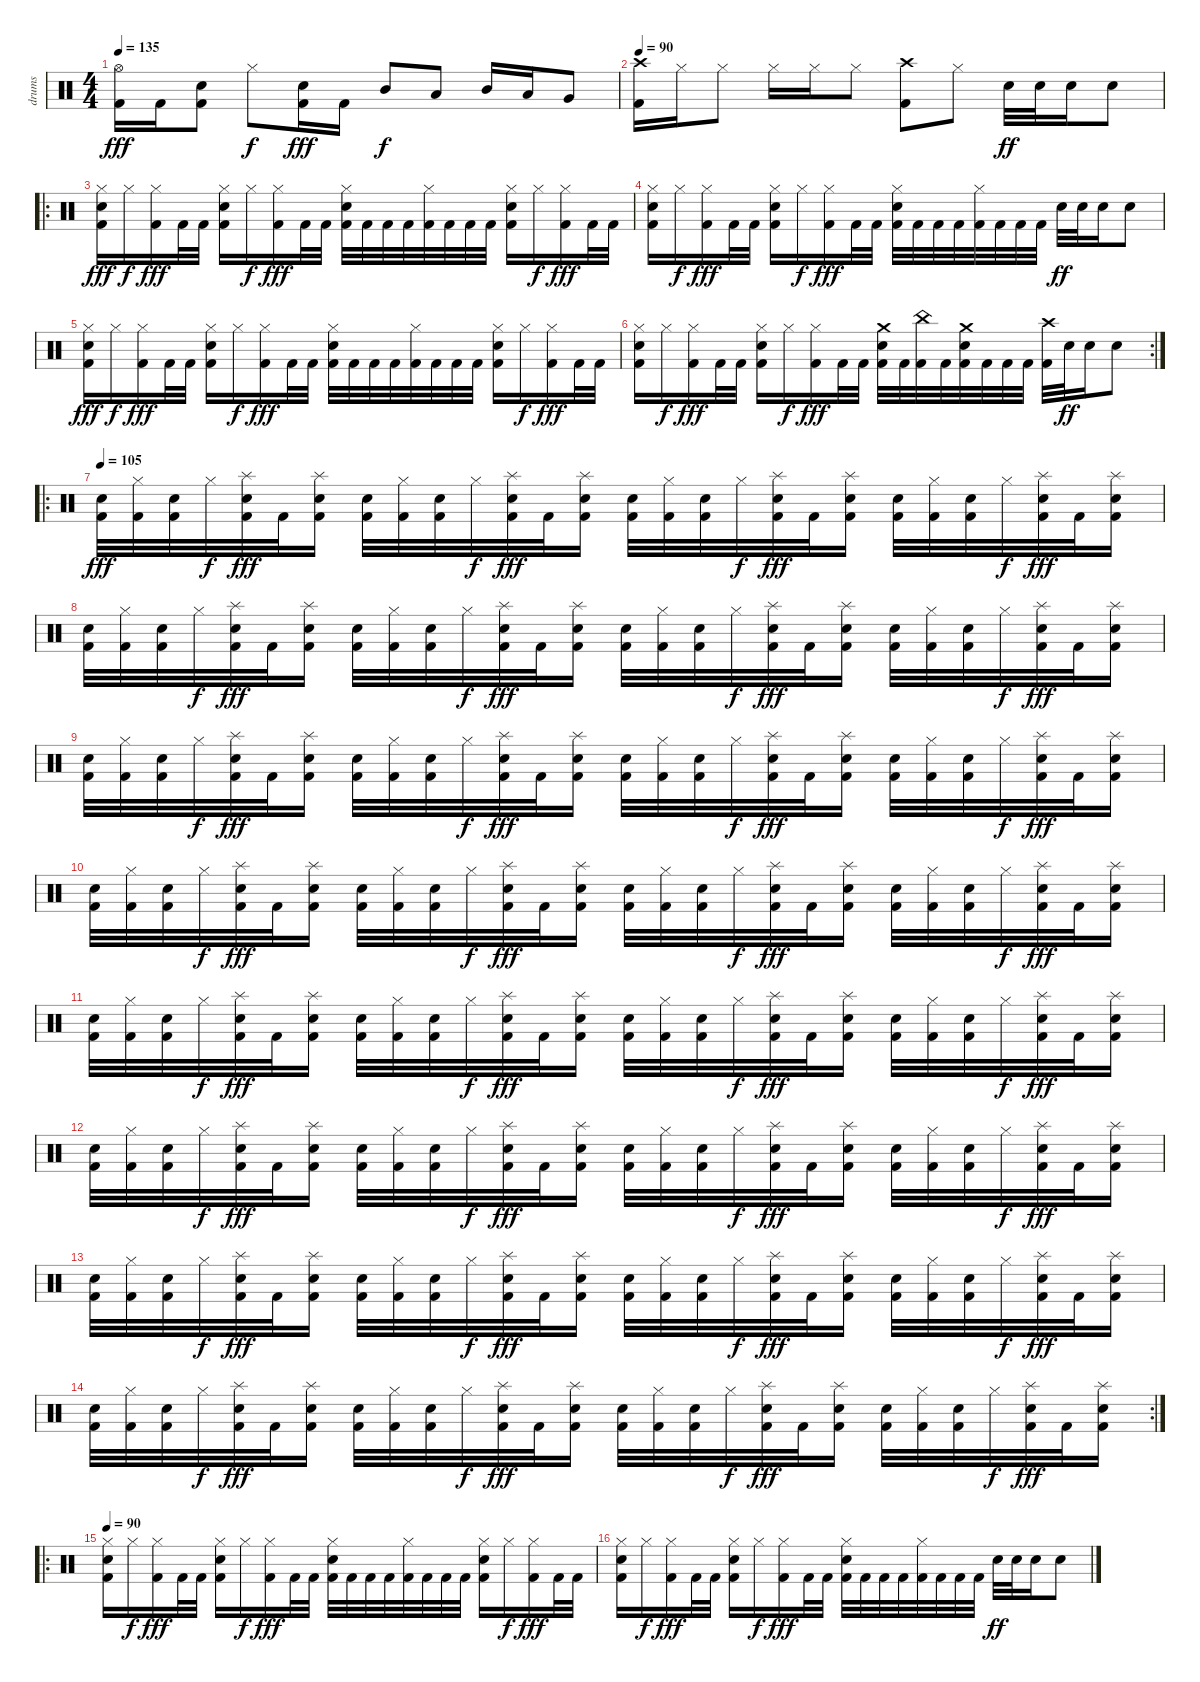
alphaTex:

\track ("drums" "drums") {instrument percussion}
\staff {score}
\articulation defaults
\ts (4 4)
\tempo 135
\clef neutral
\ks c
("Hi-Hat (open)" "Kick (hit) 2").16{dy fff} "Kick (hit) 2".16 ("Electric Snare (hit)" "Kick (hit) 2").8 "Hi-Hat (closed)".8{dy f} ("Electric Snare (hit)" "Kick (hit) 2").16{dy fff} "Kick (hit) 2".16 "Mid Tom (hit)".8{dy f} "Low Tom (hit)".8 "Mid Tom (hit)".16 "Low Tom (hit)".16 "Very Low Tom (hit)".8 |
\tempo 90
("Crash high (hit)" "Kick (hit) 2").16 "Hi-Hat (closed)".16 "Hi-Hat (closed)".8 "Hi-Hat (closed)".16 "Hi-Hat (closed)".16 "Hi-Hat (closed)".8 ("Crash high (hit)" "Kick (hit) 2").8 "Hi-Hat (closed)".8 "Electric Snare (hit)".32{dy ff} "Electric Snare (hit)".32 "Electric Snare (hit)".16 "Electric Snare (hit)".8 |
\ro
("Hi-Hat (closed)" "Electric Snare (hit)" "Kick (hit) 2").16{dy fff} "Hi-Hat (closed)".16{dy f} ("Hi-Hat (closed)" "Kick (hit) 2").16{dy fff} "Kick (hit) 2".32 "Kick (hit) 2".32 ("Hi-Hat (closed)" "Electric Snare (hit)" "Kick (hit) 2").16 "Hi-Hat (closed)".16{dy f} ("Hi-Hat (closed)" "Kick (hit) 2").16{dy fff} "Kick (hit) 2".32 "Kick (hit) 2".32 ("Hi-Hat (closed)" "Electric Snare (hit)" "Kick (hit) 2").32 "Kick (hit) 2".32 "Kick (hit) 2".32 "Kick (hit) 2".32 ("Hi-Hat (closed)" "Kick (hit) 2").32 "Kick (hit) 2".32 "Kick (hit) 2".32 "Kick (hit) 2".32 ("Hi-Hat (closed)" "Electric Snare (hit)" "Kick (hit) 2").16 "Hi-Hat (closed)".16{dy f} ("Hi-Hat (closed)" "Kick (hit) 2").16{dy fff} "Kick (hit) 2".32 "Kick (hit) 2".32 |
("Hi-Hat (closed)" "Electric Snare (hit)" "Kick (hit) 2").16 "Hi-Hat (closed)".16{dy f} ("Hi-Hat (closed)" "Kick (hit) 2").16{dy fff} "Kick (hit) 2".32 "Kick (hit) 2".32 ("Hi-Hat (closed)" "Electric Snare (hit)" "Kick (hit) 2").16 "Hi-Hat (closed)".16{dy f} ("Hi-Hat (closed)" "Kick (hit) 2").16{dy fff} "Kick (hit) 2".32 "Kick (hit) 2".32 ("Hi-Hat (closed)" "Electric Snare (hit)" "Kick (hit) 2").32 "Kick (hit) 2".32 "Kick (hit) 2".32 "Kick (hit) 2".32 ("Hi-Hat (closed)" "Kick (hit) 2").32 "Kick (hit) 2".32 "Kick (hit) 2".32 "Kick (hit) 2".32 "Electric Snare (hit)".32{dy ff} "Electric Snare (hit)".32 "Electric Snare (hit)".16 "Electric Snare (hit)".8 |
("Hi-Hat (closed)" "Electric Snare (hit)" "Kick (hit) 2").16{dy fff} "Hi-Hat (closed)".16{dy f} ("Hi-Hat (closed)" "Kick (hit) 2").16{dy fff} "Kick (hit) 2".32 "Kick (hit) 2".32 ("Hi-Hat (closed)" "Electric Snare (hit)" "Kick (hit) 2").16 "Hi-Hat (closed)".16{dy f} ("Hi-Hat (closed)" "Kick (hit) 2").16{dy fff} "Kick (hit) 2".32 "Kick (hit) 2".32 ("Hi-Hat (closed)" "Electric Snare (hit)" "Kick (hit) 2").32 "Kick (hit) 2".32 "Kick (hit) 2".32 "Kick (hit) 2".32 ("Hi-Hat (closed)" "Kick (hit) 2").32 "Kick (hit) 2".32 "Kick (hit) 2".32 "Kick (hit) 2".32 ("Hi-Hat (closed)" "Electric Snare (hit)" "Kick (hit) 2").16 "Hi-Hat (closed)".16{dy f} ("Hi-Hat (closed)" "Kick (hit) 2").16{dy fff} "Kick (hit) 2".32 "Kick (hit) 2".32 |
\rc 2
("Hi-Hat (closed)" "Electric Snare (hit)" "Kick (hit) 2").16 "Hi-Hat (closed)".16{dy f} ("Hi-Hat (closed)" "Kick (hit) 2").16{dy fff} "Kick (hit) 2".32 "Kick (hit) 2".32 ("Hi-Hat (closed)" "Electric Snare (hit)" "Kick (hit) 2").16 "Hi-Hat (closed)".16{dy f} ("Hi-Hat (closed)" "Kick (hit) 2").16{dy fff} "Kick (hit) 2".32 "Kick (hit) 2".32 ("Crash medium (hit)" "Electric Snare (hit)" "Kick (hit) 2").32 "Kick (hit) 2".32 ("China (hit)" "Kick (hit) 2").32 "Kick (hit) 2".32 ("Crash medium (hit)" "Electric Snare (hit)" "Kick (hit) 2").32 "Kick (hit) 2".32 "Kick (hit) 2".32 "Kick (hit) 2".32 ("Crash high (hit)" "Kick (hit) 2").32 "Electric Snare (hit)".32{dy ff} "Electric Snare (hit)".16 "Electric Snare (hit)".8 |
\ro
\tempo 105
("Electric Snare (hit)" "Kick (hit) 2").32{dy fff} ("Hi-Hat (closed)" "Kick (hit) 2").32 ("Electric Snare (hit)" "Kick (hit) 2").32 "Hi-Hat (closed)".32{dy f} ("Splash (hit)" "Electric Snare (hit)" "Kick (hit) 2").32{dy fff} "Kick (hit) 2".32 ("Splash (hit)" "Electric Snare (hit)" "Kick (hit) 2").16 ("Electric Snare (hit)" "Kick (hit) 2").32 ("Hi-Hat (closed)" "Kick (hit) 2").32 ("Electric Snare (hit)" "Kick (hit) 2").32 "Hi-Hat (closed)".32{dy f} ("Splash (hit)" "Electric Snare (hit)" "Kick (hit) 2").32{dy fff} "Kick (hit) 2".32 ("Splash (hit)" "Electric Snare (hit)" "Kick (hit) 2").16 ("Electric Snare (hit)" "Kick (hit) 2").32 ("Hi-Hat (closed)" "Kick (hit) 2").32 ("Electric Snare (hit)" "Kick (hit) 2").32 "Hi-Hat (closed)".32{dy f} ("Splash (hit)" "Electric Snare (hit)" "Kick (hit) 2").32{dy fff} "Kick (hit) 2".32 ("Splash (hit)" "Electric Snare (hit)" "Kick (hit) 2").16 ("Electric Snare (hit)" "Kick (hit) 2").32 ("Hi-Hat (closed)" "Kick (hit) 2").32 ("Electric Snare (hit)" "Kick (hit) 2").32 "Hi-Hat (closed)".32{dy f} ("Splash (hit)" "Electric Snare (hit)" "Kick (hit) 2").32{dy fff} "Kick (hit) 2".32 ("Splash (hit)" "Electric Snare (hit)" "Kick (hit) 2").16 |
("Electric Snare (hit)" "Kick (hit) 2").32 ("Hi-Hat (closed)" "Kick (hit) 2").32 ("Electric Snare (hit)" "Kick (hit) 2").32 "Hi-Hat (closed)".32{dy f} ("Splash (hit)" "Electric Snare (hit)" "Kick (hit) 2").32{dy fff} "Kick (hit) 2".32 ("Splash (hit)" "Electric Snare (hit)" "Kick (hit) 2").16 ("Electric Snare (hit)" "Kick (hit) 2").32 ("Hi-Hat (closed)" "Kick (hit) 2").32 ("Electric Snare (hit)" "Kick (hit) 2").32 "Hi-Hat (closed)".32{dy f} ("Splash (hit)" "Electric Snare (hit)" "Kick (hit) 2").32{dy fff} "Kick (hit) 2".32 ("Splash (hit)" "Electric Snare (hit)" "Kick (hit) 2").16 ("Electric Snare (hit)" "Kick (hit) 2").32 ("Hi-Hat (closed)" "Kick (hit) 2").32 ("Electric Snare (hit)" "Kick (hit) 2").32 "Hi-Hat (closed)".32{dy f} ("Splash (hit)" "Electric Snare (hit)" "Kick (hit) 2").32{dy fff} "Kick (hit) 2".32 ("Splash (hit)" "Electric Snare (hit)" "Kick (hit) 2").16 ("Electric Snare (hit)" "Kick (hit) 2").32 ("Hi-Hat (closed)" "Kick (hit) 2").32 ("Electric Snare (hit)" "Kick (hit) 2").32 "Hi-Hat (closed)".32{dy f} ("Splash (hit)" "Electric Snare (hit)" "Kick (hit) 2").32{dy fff} "Kick (hit) 2".32 ("Splash (hit)" "Electric Snare (hit)" "Kick (hit) 2").16 |
("Electric Snare (hit)" "Kick (hit) 2").32 ("Hi-Hat (closed)" "Kick (hit) 2").32 ("Electric Snare (hit)" "Kick (hit) 2").32 "Hi-Hat (closed)".32{dy f} ("Splash (hit)" "Electric Snare (hit)" "Kick (hit) 2").32{dy fff} "Kick (hit) 2".32 ("Splash (hit)" "Electric Snare (hit)" "Kick (hit) 2").16 ("Electric Snare (hit)" "Kick (hit) 2").32 ("Hi-Hat (closed)" "Kick (hit) 2").32 ("Electric Snare (hit)" "Kick (hit) 2").32 "Hi-Hat (closed)".32{dy f} ("Splash (hit)" "Electric Snare (hit)" "Kick (hit) 2").32{dy fff} "Kick (hit) 2".32 ("Splash (hit)" "Electric Snare (hit)" "Kick (hit) 2").16 ("Electric Snare (hit)" "Kick (hit) 2").32 ("Hi-Hat (closed)" "Kick (hit) 2").32 ("Electric Snare (hit)" "Kick (hit) 2").32 "Hi-Hat (closed)".32{dy f} ("Splash (hit)" "Electric Snare (hit)" "Kick (hit) 2").32{dy fff} "Kick (hit) 2".32 ("Splash (hit)" "Electric Snare (hit)" "Kick (hit) 2").16 ("Electric Snare (hit)" "Kick (hit) 2").32 ("Hi-Hat (closed)" "Kick (hit) 2").32 ("Electric Snare (hit)" "Kick (hit) 2").32 "Hi-Hat (closed)".32{dy f} ("Splash (hit)" "Electric Snare (hit)" "Kick (hit) 2").32{dy fff} "Kick (hit) 2".32 ("Splash (hit)" "Electric Snare (hit)" "Kick (hit) 2").16 |
("Electric Snare (hit)" "Kick (hit) 2").32 ("Hi-Hat (closed)" "Kick (hit) 2").32 ("Electric Snare (hit)" "Kick (hit) 2").32 "Hi-Hat (closed)".32{dy f} ("Splash (hit)" "Electric Snare (hit)" "Kick (hit) 2").32{dy fff} "Kick (hit) 2".32 ("Splash (hit)" "Electric Snare (hit)" "Kick (hit) 2").16 ("Electric Snare (hit)" "Kick (hit) 2").32 ("Hi-Hat (closed)" "Kick (hit) 2").32 ("Electric Snare (hit)" "Kick (hit) 2").32 "Hi-Hat (closed)".32{dy f} ("Splash (hit)" "Electric Snare (hit)" "Kick (hit) 2").32{dy fff} "Kick (hit) 2".32 ("Splash (hit)" "Electric Snare (hit)" "Kick (hit) 2").16 ("Electric Snare (hit)" "Kick (hit) 2").32 ("Hi-Hat (closed)" "Kick (hit) 2").32 ("Electric Snare (hit)" "Kick (hit) 2").32 "Hi-Hat (closed)".32{dy f} ("Splash (hit)" "Electric Snare (hit)" "Kick (hit) 2").32{dy fff} "Kick (hit) 2".32 ("Splash (hit)" "Electric Snare (hit)" "Kick (hit) 2").16 ("Electric Snare (hit)" "Kick (hit) 2").32 ("Hi-Hat (closed)" "Kick (hit) 2").32 ("Electric Snare (hit)" "Kick (hit) 2").32 "Hi-Hat (closed)".32{dy f} ("Splash (hit)" "Electric Snare (hit)" "Kick (hit) 2").32{dy fff} "Kick (hit) 2".32 ("Splash (hit)" "Electric Snare (hit)" "Kick (hit) 2").16 |
("Electric Snare (hit)" "Kick (hit) 2").32 ("Hi-Hat (closed)" "Kick (hit) 2").32 ("Electric Snare (hit)" "Kick (hit) 2").32 "Hi-Hat (closed)".32{dy f} ("Splash (hit)" "Electric Snare (hit)" "Kick (hit) 2").32{dy fff} "Kick (hit) 2".32 ("Splash (hit)" "Electric Snare (hit)" "Kick (hit) 2").16 ("Electric Snare (hit)" "Kick (hit) 2").32 ("Hi-Hat (closed)" "Kick (hit) 2").32 ("Electric Snare (hit)" "Kick (hit) 2").32 "Hi-Hat (closed)".32{dy f} ("Splash (hit)" "Electric Snare (hit)" "Kick (hit) 2").32{dy fff} "Kick (hit) 2".32 ("Splash (hit)" "Electric Snare (hit)" "Kick (hit) 2").16 ("Electric Snare (hit)" "Kick (hit) 2").32 ("Hi-Hat (closed)" "Kick (hit) 2").32 ("Electric Snare (hit)" "Kick (hit) 2").32 "Hi-Hat (closed)".32{dy f} ("Splash (hit)" "Electric Snare (hit)" "Kick (hit) 2").32{dy fff} "Kick (hit) 2".32 ("Splash (hit)" "Electric Snare (hit)" "Kick (hit) 2").16 ("Electric Snare (hit)" "Kick (hit) 2").32 ("Hi-Hat (closed)" "Kick (hit) 2").32 ("Electric Snare (hit)" "Kick (hit) 2").32 "Hi-Hat (closed)".32{dy f} ("Splash (hit)" "Electric Snare (hit)" "Kick (hit) 2").32{dy fff} "Kick (hit) 2".32 ("Splash (hit)" "Electric Snare (hit)" "Kick (hit) 2").16 |
("Electric Snare (hit)" "Kick (hit) 2").32 ("Hi-Hat (closed)" "Kick (hit) 2").32 ("Electric Snare (hit)" "Kick (hit) 2").32 "Hi-Hat (closed)".32{dy f} ("Splash (hit)" "Electric Snare (hit)" "Kick (hit) 2").32{dy fff} "Kick (hit) 2".32 ("Splash (hit)" "Electric Snare (hit)" "Kick (hit) 2").16 ("Electric Snare (hit)" "Kick (hit) 2").32 ("Hi-Hat (closed)" "Kick (hit) 2").32 ("Electric Snare (hit)" "Kick (hit) 2").32 "Hi-Hat (closed)".32{dy f} ("Splash (hit)" "Electric Snare (hit)" "Kick (hit) 2").32{dy fff} "Kick (hit) 2".32 ("Splash (hit)" "Electric Snare (hit)" "Kick (hit) 2").16 ("Electric Snare (hit)" "Kick (hit) 2").32 ("Hi-Hat (closed)" "Kick (hit) 2").32 ("Electric Snare (hit)" "Kick (hit) 2").32 "Hi-Hat (closed)".32{dy f} ("Splash (hit)" "Electric Snare (hit)" "Kick (hit) 2").32{dy fff} "Kick (hit) 2".32 ("Splash (hit)" "Electric Snare (hit)" "Kick (hit) 2").16 ("Electric Snare (hit)" "Kick (hit) 2").32 ("Hi-Hat (closed)" "Kick (hit) 2").32 ("Electric Snare (hit)" "Kick (hit) 2").32 "Hi-Hat (closed)".32{dy f} ("Splash (hit)" "Electric Snare (hit)" "Kick (hit) 2").32{dy fff} "Kick (hit) 2".32 ("Splash (hit)" "Electric Snare (hit)" "Kick (hit) 2").16 |
("Electric Snare (hit)" "Kick (hit) 2").32 ("Hi-Hat (closed)" "Kick (hit) 2").32 ("Electric Snare (hit)" "Kick (hit) 2").32 "Hi-Hat (closed)".32{dy f} ("Splash (hit)" "Electric Snare (hit)" "Kick (hit) 2").32{dy fff} "Kick (hit) 2".32 ("Splash (hit)" "Electric Snare (hit)" "Kick (hit) 2").16 ("Electric Snare (hit)" "Kick (hit) 2").32 ("Hi-Hat (closed)" "Kick (hit) 2").32 ("Electric Snare (hit)" "Kick (hit) 2").32 "Hi-Hat (closed)".32{dy f} ("Splash (hit)" "Electric Snare (hit)" "Kick (hit) 2").32{dy fff} "Kick (hit) 2".32 ("Splash (hit)" "Electric Snare (hit)" "Kick (hit) 2").16 ("Electric Snare (hit)" "Kick (hit) 2").32 ("Hi-Hat (closed)" "Kick (hit) 2").32 ("Electric Snare (hit)" "Kick (hit) 2").32 "Hi-Hat (closed)".32{dy f} ("Splash (hit)" "Electric Snare (hit)" "Kick (hit) 2").32{dy fff} "Kick (hit) 2".32 ("Splash (hit)" "Electric Snare (hit)" "Kick (hit) 2").16 ("Electric Snare (hit)" "Kick (hit) 2").32 ("Hi-Hat (closed)" "Kick (hit) 2").32 ("Electric Snare (hit)" "Kick (hit) 2").32 "Hi-Hat (closed)".32{dy f} ("Splash (hit)" "Electric Snare (hit)" "Kick (hit) 2").32{dy fff} "Kick (hit) 2".32 ("Splash (hit)" "Electric Snare (hit)" "Kick (hit) 2").16 |
\rc 2
("Electric Snare (hit)" "Kick (hit) 2").32 ("Hi-Hat (closed)" "Kick (hit) 2").32 ("Electric Snare (hit)" "Kick (hit) 2").32 "Hi-Hat (closed)".32{dy f} ("Splash (hit)" "Electric Snare (hit)" "Kick (hit) 2").32{dy fff} "Kick (hit) 2".32 ("Splash (hit)" "Electric Snare (hit)" "Kick (hit) 2").16 ("Electric Snare (hit)" "Kick (hit) 2").32 ("Hi-Hat (closed)" "Kick (hit) 2").32 ("Electric Snare (hit)" "Kick (hit) 2").32 "Hi-Hat (closed)".32{dy f} ("Splash (hit)" "Electric Snare (hit)" "Kick (hit) 2").32{dy fff} "Kick (hit) 2".32 ("Splash (hit)" "Electric Snare (hit)" "Kick (hit) 2").16 ("Electric Snare (hit)" "Kick (hit) 2").32 ("Hi-Hat (closed)" "Kick (hit) 2").32 ("Electric Snare (hit)" "Kick (hit) 2").32 "Hi-Hat (closed)".32{dy f} ("Splash (hit)" "Electric Snare (hit)" "Kick (hit) 2").32{dy fff} "Kick (hit) 2".32 ("Splash (hit)" "Electric Snare (hit)" "Kick (hit) 2").16 ("Electric Snare (hit)" "Kick (hit) 2").32 ("Hi-Hat (closed)" "Kick (hit) 2").32 ("Electric Snare (hit)" "Kick (hit) 2").32 "Hi-Hat (closed)".32{dy f} ("Splash (hit)" "Electric Snare (hit)" "Kick (hit) 2").32{dy fff} "Kick (hit) 2".32 ("Splash (hit)" "Electric Snare (hit)" "Kick (hit) 2").16 |
\ro
\tempo 90
("Hi-Hat (closed)" "Electric Snare (hit)" "Kick (hit) 2").16 "Hi-Hat (closed)".16{dy f} ("Hi-Hat (closed)" "Kick (hit) 2").16{dy fff} "Kick (hit) 2".32 "Kick (hit) 2".32 ("Hi-Hat (closed)" "Electric Snare (hit)" "Kick (hit) 2").16 "Hi-Hat (closed)".16{dy f} ("Hi-Hat (closed)" "Kick (hit) 2").16{dy fff} "Kick (hit) 2".32 "Kick (hit) 2".32 ("Hi-Hat (closed)" "Electric Snare (hit)" "Kick (hit) 2").32 "Kick (hit) 2".32 "Kick (hit) 2".32 "Kick (hit) 2".32 ("Hi-Hat (closed)" "Kick (hit) 2").32 "Kick (hit) 2".32 "Kick (hit) 2".32 "Kick (hit) 2".32 ("Hi-Hat (closed)" "Electric Snare (hit)" "Kick (hit) 2").16 "Hi-Hat (closed)".16{dy f} ("Hi-Hat (closed)" "Kick (hit) 2").16{dy fff} "Kick (hit) 2".32 "Kick (hit) 2".32 |
("Hi-Hat (closed)" "Electric Snare (hit)" "Kick (hit) 2").16 "Hi-Hat (closed)".16{dy f} ("Hi-Hat (closed)" "Kick (hit) 2").16{dy fff} "Kick (hit) 2".32 "Kick (hit) 2".32 ("Hi-Hat (closed)" "Electric Snare (hit)" "Kick (hit) 2").16 "Hi-Hat (closed)".16{dy f} ("Hi-Hat (closed)" "Kick (hit) 2").16{dy fff} "Kick (hit) 2".32 "Kick (hit) 2".32 ("Hi-Hat (closed)" "Electric Snare (hit)" "Kick (hit) 2").32 "Kick (hit) 2".32 "Kick (hit) 2".32 "Kick (hit) 2".32 ("Hi-Hat (closed)" "Kick (hit) 2").32 "Kick (hit) 2".32 "Kick (hit) 2".32 "Kick (hit) 2".32 "Electric Snare (hit)".32{dy ff} "Electric Snare (hit)".32 "Electric Snare (hit)".16 "Electric Snare (hit)".8
